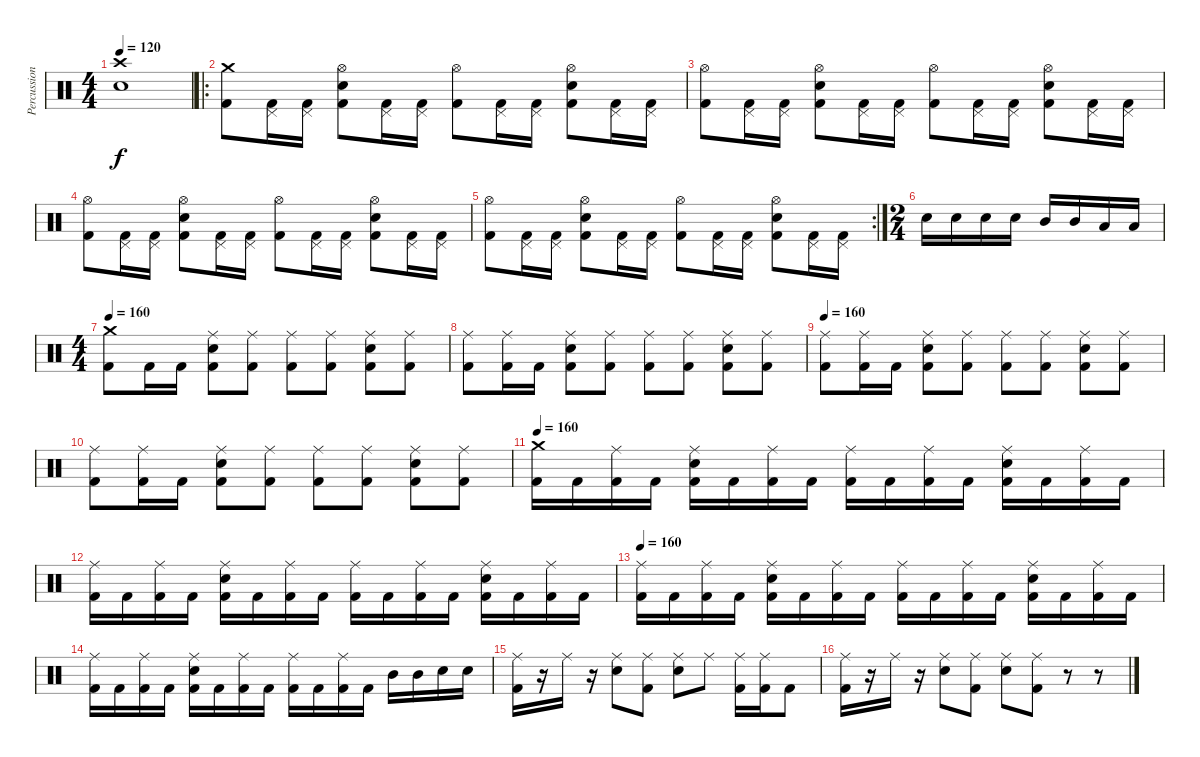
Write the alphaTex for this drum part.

\track ("Percussions" "Percussion") {instrument percussion}
\staff {score}
\articulation defaults
\ts (4 4)
\tempo 120
\clef neutral
\ks c
("Crash high (hit)" "Electric Snare (hit)").1{dy f} |
\ro
("Kick (hit) 2" "Crash medium (hit)").8 ("Kick (hit) 2" "Pedal Hi-Hat (hit)").16 ("Kick (hit) 2" "Pedal Hi-Hat (hit)").16 ("Kick (hit) 2" "Electric Snare (hit)" "Hi-Hat (open)").8 ("Kick (hit) 2" "Pedal Hi-Hat (hit)").16 ("Kick (hit) 2" "Pedal Hi-Hat (hit)").16 ("Kick (hit) 2" "Hi-Hat (open)").8 ("Kick (hit) 2" "Pedal Hi-Hat (hit)").16 ("Kick (hit) 2" "Pedal Hi-Hat (hit)").16 ("Kick (hit) 2" "Electric Snare (hit)" "Hi-Hat (open)").8 ("Kick (hit) 2" "Pedal Hi-Hat (hit)").16 ("Kick (hit) 2" "Pedal Hi-Hat (hit)").16 |
("Kick (hit) 2" "Hi-Hat (open)").8 ("Kick (hit) 2" "Pedal Hi-Hat (hit)").16 ("Kick (hit) 2" "Pedal Hi-Hat (hit)").16 ("Kick (hit) 2" "Electric Snare (hit)" "Hi-Hat (open)").8 ("Kick (hit) 2" "Pedal Hi-Hat (hit)").16 ("Kick (hit) 2" "Pedal Hi-Hat (hit)").16 ("Kick (hit) 2" "Hi-Hat (open)").8 ("Kick (hit) 2" "Pedal Hi-Hat (hit)").16 ("Kick (hit) 2" "Pedal Hi-Hat (hit)").16 ("Kick (hit) 2" "Electric Snare (hit)" "Hi-Hat (open)").8 ("Kick (hit) 2" "Pedal Hi-Hat (hit)").16 ("Kick (hit) 2" "Pedal Hi-Hat (hit)").16 |
("Kick (hit) 2" "Hi-Hat (open)").8 ("Kick (hit) 2" "Pedal Hi-Hat (hit)").16 ("Kick (hit) 2" "Pedal Hi-Hat (hit)").16 ("Kick (hit) 2" "Electric Snare (hit)" "Hi-Hat (open)").8 ("Kick (hit) 2" "Pedal Hi-Hat (hit)").16 ("Kick (hit) 2" "Pedal Hi-Hat (hit)").16 ("Kick (hit) 2" "Hi-Hat (open)").8 ("Kick (hit) 2" "Pedal Hi-Hat (hit)").16 ("Kick (hit) 2" "Pedal Hi-Hat (hit)").16 ("Kick (hit) 2" "Electric Snare (hit)" "Hi-Hat (open)").8 ("Kick (hit) 2" "Pedal Hi-Hat (hit)").16 ("Kick (hit) 2" "Pedal Hi-Hat (hit)").16 |
\rc 2
("Kick (hit) 2" "Hi-Hat (open)").8 ("Kick (hit) 2" "Pedal Hi-Hat (hit)").16 ("Kick (hit) 2" "Pedal Hi-Hat (hit)").16 ("Kick (hit) 2" "Electric Snare (hit)" "Hi-Hat (open)").8 ("Kick (hit) 2" "Pedal Hi-Hat (hit)").16 ("Kick (hit) 2" "Pedal Hi-Hat (hit)").16 ("Kick (hit) 2" "Hi-Hat (open)").8 ("Kick (hit) 2" "Pedal Hi-Hat (hit)").16 ("Kick (hit) 2" "Pedal Hi-Hat (hit)").16 ("Kick (hit) 2" "Electric Snare (hit)" "Hi-Hat (open)").8 ("Kick (hit) 2" "Pedal Hi-Hat (hit)").16 ("Kick (hit) 2" "Pedal Hi-Hat (hit)").16 |
\ts (2 4)
"Electric Snare (hit)".16 "Electric Snare (hit)".16 "Snare (hit) 2".16 "Snare (hit) 2".16 "Mid Tom (hit)".16 "Mid Tom (hit)".16 "Low Tom (hit)".16 "Low Tom (hit)".16 |
\ts (4 4)
\tempo 160
("Kick (hit) 2" "Crash medium (hit)").8 "Kick (hit) 2".16 "Kick (hit) 2".16 ("Kick (hit) 2" "Electric Snare (hit)" "Ride (middle)").8 ("Kick (hit) 2" "Ride (middle)").8 ("Kick (hit) 2" "Ride (middle)").8 ("Kick (hit) 2" "Ride (middle)").8 ("Kick (hit) 2" "Electric Snare (hit)" "Ride (middle)").8 ("Kick (hit) 2" "Ride (middle)").8 |
("Kick (hit) 2" "Ride (middle)").8 ("Kick (hit) 2" "Ride (middle)").16 "Kick (hit) 2".16 ("Kick (hit) 2" "Electric Snare (hit)" "Ride (middle)").8 ("Kick (hit) 2" "Ride (middle)").8 ("Kick (hit) 2" "Ride (middle)").8 ("Kick (hit) 2" "Ride (middle)").8 ("Kick (hit) 2" "Electric Snare (hit)" "Ride (middle)").8 ("Kick (hit) 2" "Ride (middle)").8 |
\tempo 160
("Kick (hit) 2" "Ride (middle)").8 ("Kick (hit) 2" "Ride (middle)").16 "Kick (hit) 2".16 ("Kick (hit) 2" "Electric Snare (hit)" "Ride (middle)").8 ("Kick (hit) 2" "Ride (middle)").8 ("Kick (hit) 2" "Ride (middle)").8 ("Kick (hit) 2" "Ride (middle)").8 ("Kick (hit) 2" "Electric Snare (hit)" "Ride (middle)").8 ("Kick (hit) 2" "Ride (middle)").8 |
("Kick (hit) 2" "Ride (middle)").8 ("Kick (hit) 2" "Ride (middle)").16 "Kick (hit) 2".16 ("Kick (hit) 2" "Electric Snare (hit)" "Ride (middle)").8 ("Kick (hit) 2" "Ride (middle)").8 ("Kick (hit) 2" "Ride (middle)").8 ("Kick (hit) 2" "Ride (middle)").8 ("Kick (hit) 2" "Electric Snare (hit)" "Ride (middle)").8 ("Kick (hit) 2" "Ride (middle)").8 |
\tempo 160
("Kick (hit) 2" "Crash medium (hit)").16 "Kick (hit) 2".16 ("Kick (hit) 2" "Ride (middle)").16 "Kick (hit) 2".16 ("Kick (hit) 2" "Electric Snare (hit)" "Ride (middle)").16 "Kick (hit) 2".16 ("Kick (hit) 2" "Ride (middle)").16 "Kick (hit) 2".16 ("Kick (hit) 2" "Ride (middle)").16 "Kick (hit) 2".16 ("Kick (hit) 2" "Ride (middle)").16 "Kick (hit) 2".16 ("Kick (hit) 2" "Electric Snare (hit)" "Ride (middle)").16 "Kick (hit) 2".16 ("Kick (hit) 2" "Ride (middle)").16 "Kick (hit) 2".16 |
("Kick (hit) 2" "Ride (middle)").16 "Kick (hit) 2".16 ("Kick (hit) 2" "Ride (middle)").16 "Kick (hit) 2".16 ("Kick (hit) 2" "Electric Snare (hit)" "Ride (middle)").16 "Kick (hit) 2".16 ("Kick (hit) 2" "Ride (middle)").16 "Kick (hit) 2".16 ("Kick (hit) 2" "Ride (middle)").16 "Kick (hit) 2".16 ("Kick (hit) 2" "Ride (middle)").16 "Kick (hit) 2".16 ("Kick (hit) 2" "Electric Snare (hit)" "Ride (middle)").16 "Kick (hit) 2".16 ("Kick (hit) 2" "Ride (middle)").16 "Kick (hit) 2".16 |
\tempo 160
("Kick (hit) 2" "Ride (middle)").16 "Kick (hit) 2".16 ("Kick (hit) 2" "Ride (middle)").16 "Kick (hit) 2".16 ("Kick (hit) 2" "Electric Snare (hit)" "Ride (middle)").16 "Kick (hit) 2".16 ("Kick (hit) 2" "Ride (middle)").16 "Kick (hit) 2".16 ("Kick (hit) 2" "Ride (middle)").16 "Kick (hit) 2".16 ("Kick (hit) 2" "Ride (middle)").16 "Kick (hit) 2".16 ("Kick (hit) 2" "Electric Snare (hit)" "Ride (middle)").16 "Kick (hit) 2".16 ("Kick (hit) 2" "Ride (middle)").16 "Kick (hit) 2".16 |
("Kick (hit) 2" "Ride (middle)").16 "Kick (hit) 2".16 ("Kick (hit) 2" "Ride (middle)").16 "Kick (hit) 2".16 ("Kick (hit) 2" "Electric Snare (hit)" "Ride (middle)").16 "Kick (hit) 2".16 ("Kick (hit) 2" "Ride (middle)").16 "Kick (hit) 2".16 ("Kick (hit) 2" "Ride (middle)").16 "Kick (hit) 2".16 ("Kick (hit) 2" "Ride (middle)").16 "Kick (hit) 2".16 "Mid Tom (hit)".16 "Mid Tom (hit)".16 "Electric Snare (hit)".16 "Snare (hit) 2".16 |
("Kick (hit) 2" "Ride (middle)").16 r.16 "Ride (middle)".16 r.16 ("Electric Snare (hit)" "Ride (middle)").8 ("Kick (hit) 2" "Ride (middle)").8 ("Electric Snare (hit)" "Ride (middle)").8 "Ride (middle)".8 ("Kick (hit) 2" "Ride (middle)").16 ("Kick (hit) 2" "Ride (middle)").16 "Kick (hit) 2".8 |
("Kick (hit) 2" "Ride (middle)").16 r.16 "Ride (middle)".16 r.16 ("Electric Snare (hit)" "Ride (middle)").8 ("Kick (hit) 2" "Ride (middle)").8 ("Electric Snare (hit)" "Ride (middle)").8 ("Kick (hit) 2" "Ride (middle)").8 r.8 r.8
